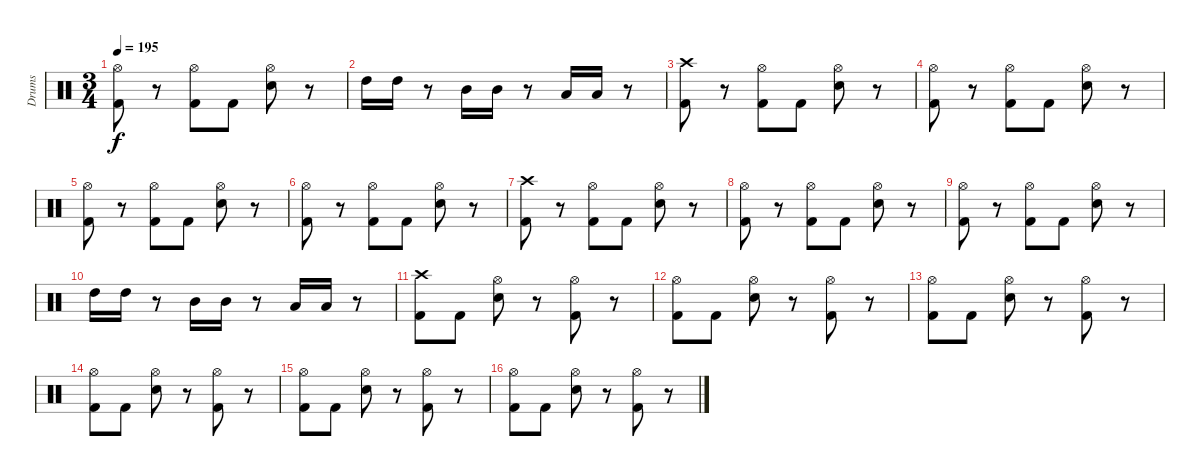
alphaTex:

\track ("Drums" "Drums") {instrument percussion}
\staff {score}
\articulation defaults
\ts (3 4)
\tempo 195
\clef neutral
\ks c
("Hi-Hat (open)" "Kick (hit) 2").8{dy f} r.8 ("Hi-Hat (open)" "Kick (hit) 2").8 "Kick (hit) 2".8 ("Hi-Hat (open)" "Electric Snare (hit)").8 r.8 |
"High Tom (hit)".16 "High Tom (hit)".16 r.8 "Mid Tom (hit)".16 "Mid Tom (hit)".16 r.8 "Low Tom (hit)".16 "Low Tom (hit)".16 r.8 |
("Crash high (hit)" "Kick (hit) 2").8 r.8 ("Hi-Hat (open)" "Kick (hit) 2").8 "Kick (hit) 2".8 ("Hi-Hat (open)" "Electric Snare (hit)").8 r.8 |
("Hi-Hat (open)" "Kick (hit) 2").8 r.8 ("Hi-Hat (open)" "Kick (hit) 2").8 "Kick (hit) 2".8 ("Hi-Hat (open)" "Electric Snare (hit)").8 r.8 |
("Hi-Hat (open)" "Kick (hit) 2").8 r.8 ("Hi-Hat (open)" "Kick (hit) 2").8 "Kick (hit) 2".8 ("Hi-Hat (open)" "Electric Snare (hit)").8 r.8 |
("Hi-Hat (open)" "Kick (hit) 2").8 r.8 ("Hi-Hat (open)" "Kick (hit) 2").8 "Kick (hit) 2".8 ("Hi-Hat (open)" "Electric Snare (hit)").8 r.8 |
("Crash high (hit)" "Kick (hit) 2").8 r.8 ("Hi-Hat (open)" "Kick (hit) 2").8 "Kick (hit) 2".8 ("Hi-Hat (open)" "Electric Snare (hit)").8 r.8 |
("Hi-Hat (open)" "Kick (hit) 2").8 r.8 ("Hi-Hat (open)" "Kick (hit) 2").8 "Kick (hit) 2".8 ("Hi-Hat (open)" "Electric Snare (hit)").8 r.8 |
("Hi-Hat (open)" "Kick (hit) 2").8 r.8 ("Hi-Hat (open)" "Kick (hit) 2").8 "Kick (hit) 2".8 ("Hi-Hat (open)" "Electric Snare (hit)").8 r.8 |
"High Tom (hit)".16 "High Tom (hit)".16 r.8 "Mid Tom (hit)".16 "Mid Tom (hit)".16 r.8 "Low Tom (hit)".16 "Low Tom (hit)".16 r.8 |
("Crash high (hit)" "Kick (hit) 2").8 "Kick (hit) 2".8 ("Hi-Hat (open)" "Electric Snare (hit)").8 r.8 ("Hi-Hat (open)" "Kick (hit) 2").8 r.8 |
("Hi-Hat (open)" "Kick (hit) 2").8 "Kick (hit) 2".8 ("Hi-Hat (open)" "Electric Snare (hit)").8 r.8 ("Hi-Hat (open)" "Kick (hit) 2").8 r.8 |
("Hi-Hat (open)" "Kick (hit) 2").8 "Kick (hit) 2".8 ("Hi-Hat (open)" "Electric Snare (hit)").8 r.8 ("Hi-Hat (open)" "Kick (hit) 2").8 r.8 |
("Hi-Hat (open)" "Kick (hit) 2").8 "Kick (hit) 2".8 ("Hi-Hat (open)" "Electric Snare (hit)").8 r.8 ("Hi-Hat (open)" "Kick (hit) 2").8 r.8 |
("Hi-Hat (open)" "Kick (hit) 2").8 "Kick (hit) 2".8 ("Hi-Hat (open)" "Electric Snare (hit)").8 r.8 ("Hi-Hat (open)" "Kick (hit) 2").8 r.8 |
("Hi-Hat (open)" "Kick (hit) 2").8 "Kick (hit) 2".8 ("Hi-Hat (open)" "Electric Snare (hit)").8 r.8 ("Hi-Hat (open)" "Kick (hit) 2").8 r.8
